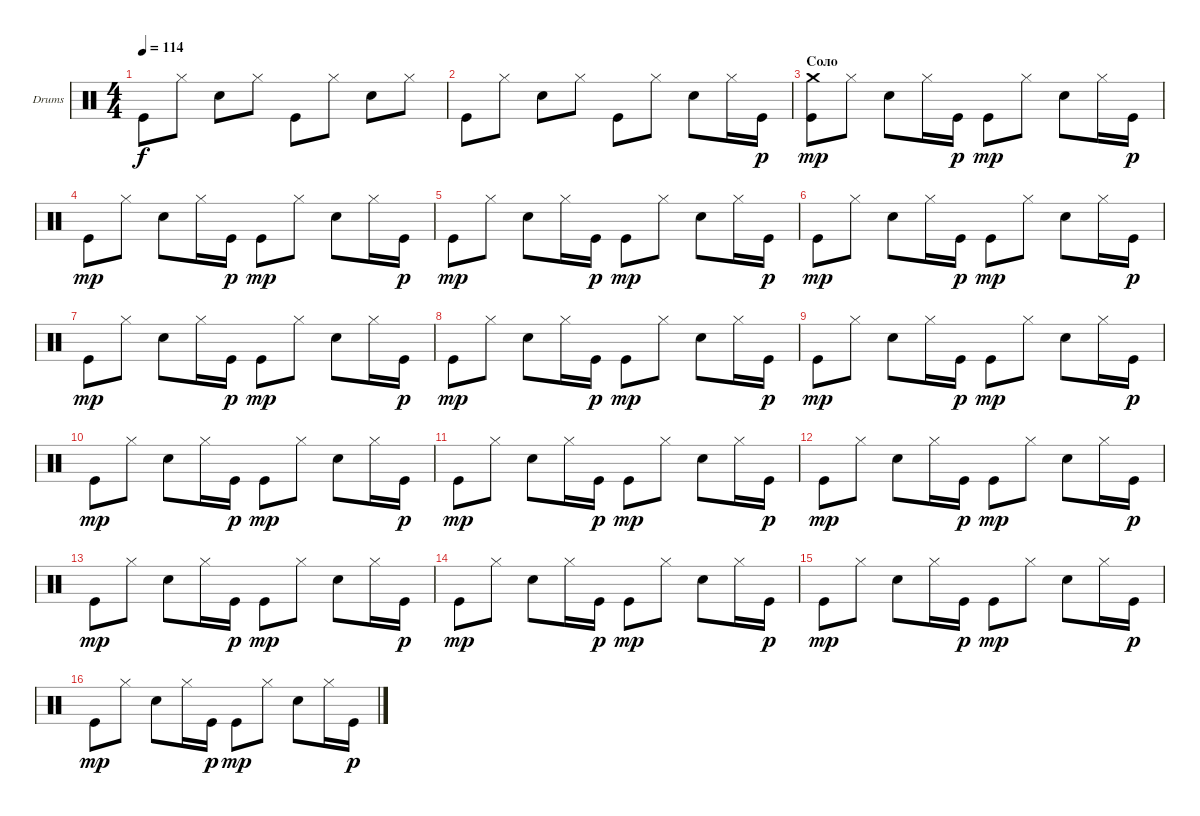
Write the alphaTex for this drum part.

\defaultSystemsLayout 4
\bracketExtendMode groupsimilarinstruments
\firstSystemTrackNameOrientation horizontal
\otherSystemsTrackNameOrientation horizontal
\track ("Е. Кулаков" "Drums") {instrument percussion}
\staff {score}
\articulation defaults
\ts (4 4)
\tempo 114
\clef neutral
\ks c "Kick (hit)".8{dy f} "Hi-Hat (closed)".8 "Snare (hit) 2".8 "Hi-Hat (closed)".8 "Kick (hit)".8 "Hi-Hat (closed)".8 "Snare (hit) 2".8 "Hi-Hat (closed)".8
|
"Kick (hit)".8 "Hi-Hat (closed)".8 "Snare (hit) 2".8 "Hi-Hat (closed)".8 "Kick (hit)".8 "Hi-Hat (closed)".8 "Snare (hit) 2".8 "Hi-Hat (closed)".16 "Kick (hit)".16{dy p} |
\section ("" "Соло")
("Kick (hit)" "Crash medium (hit)").8{dy mp} "Hi-Hat (closed)".8 "Snare (hit) 2".8 "Hi-Hat (closed)".16 "Kick (hit)".16{dy p} "Kick (hit)".8{dy mp} "Hi-Hat (closed)".8 "Snare (hit) 2".8 "Hi-Hat (closed)".16 "Kick (hit)".16{dy p} |
"Kick (hit)".8{dy mp} "Hi-Hat (closed)".8 "Snare (hit) 2".8 "Hi-Hat (closed)".16 "Kick (hit)".16{dy p} "Kick (hit)".8{dy mp} "Hi-Hat (closed)".8 "Snare (hit) 2".8 "Hi-Hat (closed)".16 "Kick (hit)".16{dy p} |
"Kick (hit)".8{dy mp} "Hi-Hat (closed)".8 "Snare (hit) 2".8 "Hi-Hat (closed)".16 "Kick (hit)".16{dy p} "Kick (hit)".8{dy mp} "Hi-Hat (closed)".8 "Snare (hit) 2".8 "Hi-Hat (closed)".16 "Kick (hit)".16{dy p} |
"Kick (hit)".8{dy mp} "Hi-Hat (closed)".8 "Snare (hit) 2".8 "Hi-Hat (closed)".16 "Kick (hit)".16{dy p} "Kick (hit)".8{dy mp} "Hi-Hat (closed)".8 "Snare (hit) 2".8 "Hi-Hat (closed)".16 "Kick (hit)".16{dy p} |
"Kick (hit)".8{dy mp} "Hi-Hat (closed)".8 "Snare (hit) 2".8 "Hi-Hat (closed)".16 "Kick (hit)".16{dy p} "Kick (hit)".8{dy mp} "Hi-Hat (closed)".8 "Snare (hit) 2".8 "Hi-Hat (closed)".16 "Kick (hit)".16{dy p} |
"Kick (hit)".8{dy mp} "Hi-Hat (closed)".8 "Snare (hit) 2".8 "Hi-Hat (closed)".16 "Kick (hit)".16{dy p} "Kick (hit)".8{dy mp} "Hi-Hat (closed)".8 "Snare (hit) 2".8 "Hi-Hat (closed)".16 "Kick (hit)".16{dy p} |
"Kick (hit)".8{dy mp} "Hi-Hat (closed)".8 "Snare (hit) 2".8 "Hi-Hat (closed)".16 "Kick (hit)".16{dy p} "Kick (hit)".8{dy mp} "Hi-Hat (closed)".8 "Snare (hit) 2".8 "Hi-Hat (closed)".16 "Kick (hit)".16{dy p} |
"Kick (hit)".8{dy mp} "Hi-Hat (closed)".8 "Snare (hit) 2".8 "Hi-Hat (closed)".16 "Kick (hit)".16{dy p} "Kick (hit)".8{dy mp} "Hi-Hat (closed)".8 "Snare (hit) 2".8 "Hi-Hat (closed)".16 "Kick (hit)".16{dy p} |
"Kick (hit)".8{dy mp} "Hi-Hat (closed)".8 "Snare (hit) 2".8 "Hi-Hat (closed)".16 "Kick (hit)".16{dy p} "Kick (hit)".8{dy mp} "Hi-Hat (closed)".8 "Snare (hit) 2".8 "Hi-Hat (closed)".16 "Kick (hit)".16{dy p} |
"Kick (hit)".8{dy mp} "Hi-Hat (closed)".8 "Snare (hit) 2".8 "Hi-Hat (closed)".16 "Kick (hit)".16{dy p} "Kick (hit)".8{dy mp} "Hi-Hat (closed)".8 "Snare (hit) 2".8 "Hi-Hat (closed)".16 "Kick (hit)".16{dy p} |
"Kick (hit)".8{dy mp} "Hi-Hat (closed)".8 "Snare (hit) 2".8 "Hi-Hat (closed)".16 "Kick (hit)".16{dy p} "Kick (hit)".8{dy mp} "Hi-Hat (closed)".8 "Snare (hit) 2".8 "Hi-Hat (closed)".16 "Kick (hit)".16{dy p} |
"Kick (hit)".8{dy mp} "Hi-Hat (closed)".8 "Snare (hit) 2".8 "Hi-Hat (closed)".16 "Kick (hit)".16{dy p} "Kick (hit)".8{dy mp} "Hi-Hat (closed)".8 "Snare (hit) 2".8 "Hi-Hat (closed)".16 "Kick (hit)".16{dy p} |
"Kick (hit)".8{dy mp} "Hi-Hat (closed)".8 "Snare (hit) 2".8 "Hi-Hat (closed)".16 "Kick (hit)".16{dy p} "Kick (hit)".8{dy mp} "Hi-Hat (closed)".8 "Snare (hit) 2".8 "Hi-Hat (closed)".16 "Kick (hit)".16{dy p} |
"Kick (hit)".8{dy mp} "Hi-Hat (closed)".8 "Snare (hit) 2".8 "Hi-Hat (closed)".16 "Kick (hit)".16{dy p} "Kick (hit)".8{dy mp} "Hi-Hat (closed)".8 "Snare (hit) 2".8 "Hi-Hat (closed)".16 "Kick (hit)".16{dy p}
